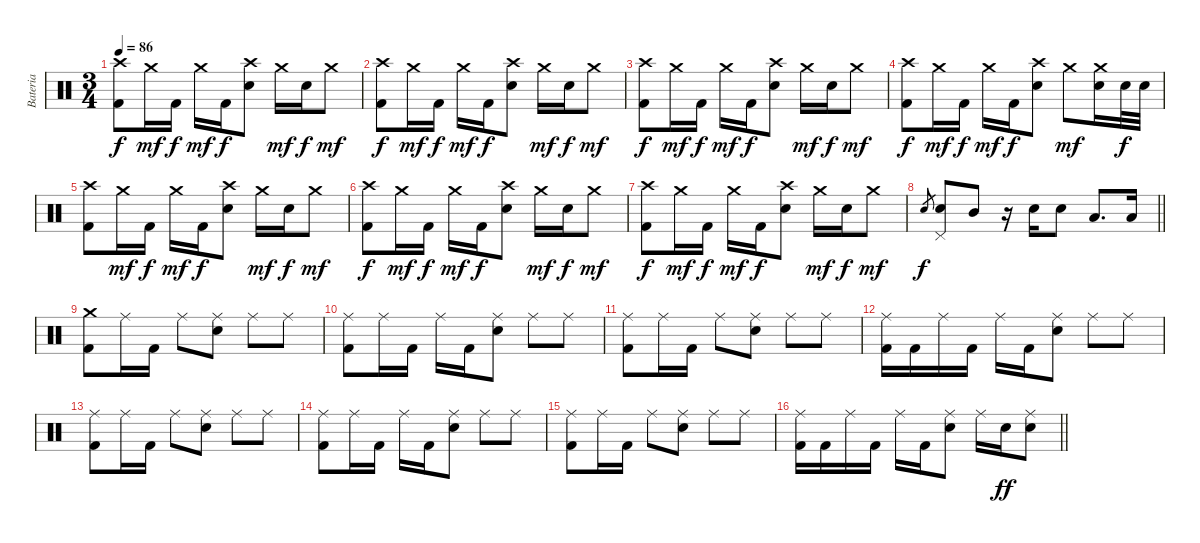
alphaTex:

\track ("Bateria" "Bateria") {instrument percussion}
\staff {score}
\articulation defaults
\ts (3 4)
\tempo 86
\clef neutral
\ks c
("Crash high (hit)" "Kick (hit) 2").8{dy f} "Crash medium (hit)".16{dy mf} "Kick (hit) 2".16{dy f} "Crash medium (hit)".16{dy mf} "Kick (hit) 2".16{dy f} ("Crash high (hit)" "Snare (hit) 2").8 "Crash medium (hit)".16{dy mf} "Snare (hit) 2".16{dy f} "Crash medium (hit)".8{dy mf} |
("Crash high (hit)" "Kick (hit) 2").8{dy f} "Crash medium (hit)".16{dy mf} "Kick (hit) 2".16{dy f} "Crash medium (hit)".16{dy mf} "Kick (hit) 2".16{dy f} ("Crash high (hit)" "Snare (hit) 2").8 "Crash medium (hit)".16{dy mf} "Snare (hit) 2".16{dy f} "Crash medium (hit)".8{dy mf} |
("Crash high (hit)" "Kick (hit) 2").8{dy f} "Crash medium (hit)".16{dy mf} "Kick (hit) 2".16{dy f} "Crash medium (hit)".16{dy mf} "Kick (hit) 2".16{dy f} ("Crash high (hit)" "Snare (hit) 2").8 "Crash medium (hit)".16{dy mf} "Snare (hit) 2".16{dy f} "Crash medium (hit)".8{dy mf} |
("Crash high (hit)" "Kick (hit) 2").8{dy f} "Crash medium (hit)".16{dy mf} "Kick (hit) 2".16{dy f} "Crash medium (hit)".16{dy mf} "Kick (hit) 2".16{dy f} ("Crash high (hit)" "Snare (hit) 2").8 "Crash medium (hit)".8{dy mf} ("Crash medium (hit)" "Snare (hit) 2").16 "Snare (hit) 2".32{dy f} "Snare (hit) 2".32 |
("Crash high (hit)" "Kick (hit) 2").8 "Crash medium (hit)".16{dy mf} "Kick (hit) 2".16{dy f} "Crash medium (hit)".16{dy mf} "Kick (hit) 2".16{dy f} ("Crash high (hit)" "Snare (hit) 2").8 "Crash medium (hit)".16{dy mf} "Snare (hit) 2".16{dy f} "Crash medium (hit)".8{dy mf} |
("Crash high (hit)" "Kick (hit) 2").8{dy f} "Crash medium (hit)".16{dy mf} "Kick (hit) 2".16{dy f} "Crash medium (hit)".16{dy mf} "Kick (hit) 2".16{dy f} ("Crash high (hit)" "Snare (hit) 2").8 "Crash medium (hit)".16{dy mf} "Snare (hit) 2".16{dy f} "Crash medium (hit)".8{dy mf} |
("Crash high (hit)" "Kick (hit) 2").8{dy f} "Crash medium (hit)".16{dy mf} "Kick (hit) 2".16{dy f} "Crash medium (hit)".16{dy mf} "Kick (hit) 2".16{dy f} ("Crash high (hit)" "Snare (hit) 2").8 "Crash medium (hit)".16{dy mf} "Snare (hit) 2".16{dy f} "Crash medium (hit)".8{dy mf} |
\barLineRight lightlight "Snare (hit) 2".8{gr dy f}
("Pedal Hi-Hat (hit)" "Snare (hit) 2").8 "Mid Tom (hit)".8 r.16 "Snare (hit) 2".16 "Snare (hit) 2".8 "Low Tom (hit)".8{d} "Low Floor Tom (hit)".16 |
\section ("" "")
("Crash medium (hit)" "Kick (hit) 2").8 "Ride (middle)".16 "Kick (hit) 2".16 "Ride (middle)".8 ("Ride (middle)" "Snare (hit) 2").8 "Ride (middle)".8 "Ride (middle)".8 |
("Ride (middle)" "Kick (hit) 2").8 "Ride (middle)".16 "Kick (hit) 2".16 "Ride (middle)".16 "Kick (hit) 2".16 ("Ride (middle)" "Snare (hit) 2").8 "Ride (middle)".8 "Ride (middle)".8 |
("Ride (middle)" "Kick (hit) 2").8 "Ride (middle)".16 "Kick (hit) 2".16 "Ride (middle)".8 ("Ride (middle)" "Snare (hit) 2").8 "Ride (middle)".8 "Ride (middle)".8 |
("Ride (middle)" "Kick (hit) 2").16 "Kick (hit) 2".16 "Ride (middle)".16 "Kick (hit) 2".16 "Ride (middle)".16 "Kick (hit) 2".16 ("Ride (middle)" "Snare (hit) 2").8 "Ride (middle)".8 "Ride (middle)".8 |
("Ride (middle)" "Kick (hit) 2").8 "Ride (middle)".16 "Kick (hit) 2".16 "Ride (middle)".8 ("Ride (middle)" "Snare (hit) 2").8 "Ride (middle)".8 "Ride (middle)".8 |
("Ride (middle)" "Kick (hit) 2").8 "Ride (middle)".16 "Kick (hit) 2".16 "Ride (middle)".16 "Kick (hit) 2".16 ("Ride (middle)" "Snare (hit) 2").8 "Ride (middle)".8 "Ride (middle)".8 |
("Ride (middle)" "Kick (hit) 2").8 "Ride (middle)".16 "Kick (hit) 2".16 "Ride (middle)".8 ("Ride (middle)" "Snare (hit) 2").8 "Ride (middle)".8 "Ride (middle)".8 |
\barLineRight lightlight
("Ride (middle)" "Kick (hit) 2").16 "Kick (hit) 2".16 "Ride (middle)".16 "Kick (hit) 2".16 "Ride (middle)".16 "Kick (hit) 2".16 ("Ride (middle)" "Snare (hit) 2").8 "Ride (middle)".16 "Snare (hit) 2".16{dy ff} ("Ride (middle)" "Snare (hit) 2").8
